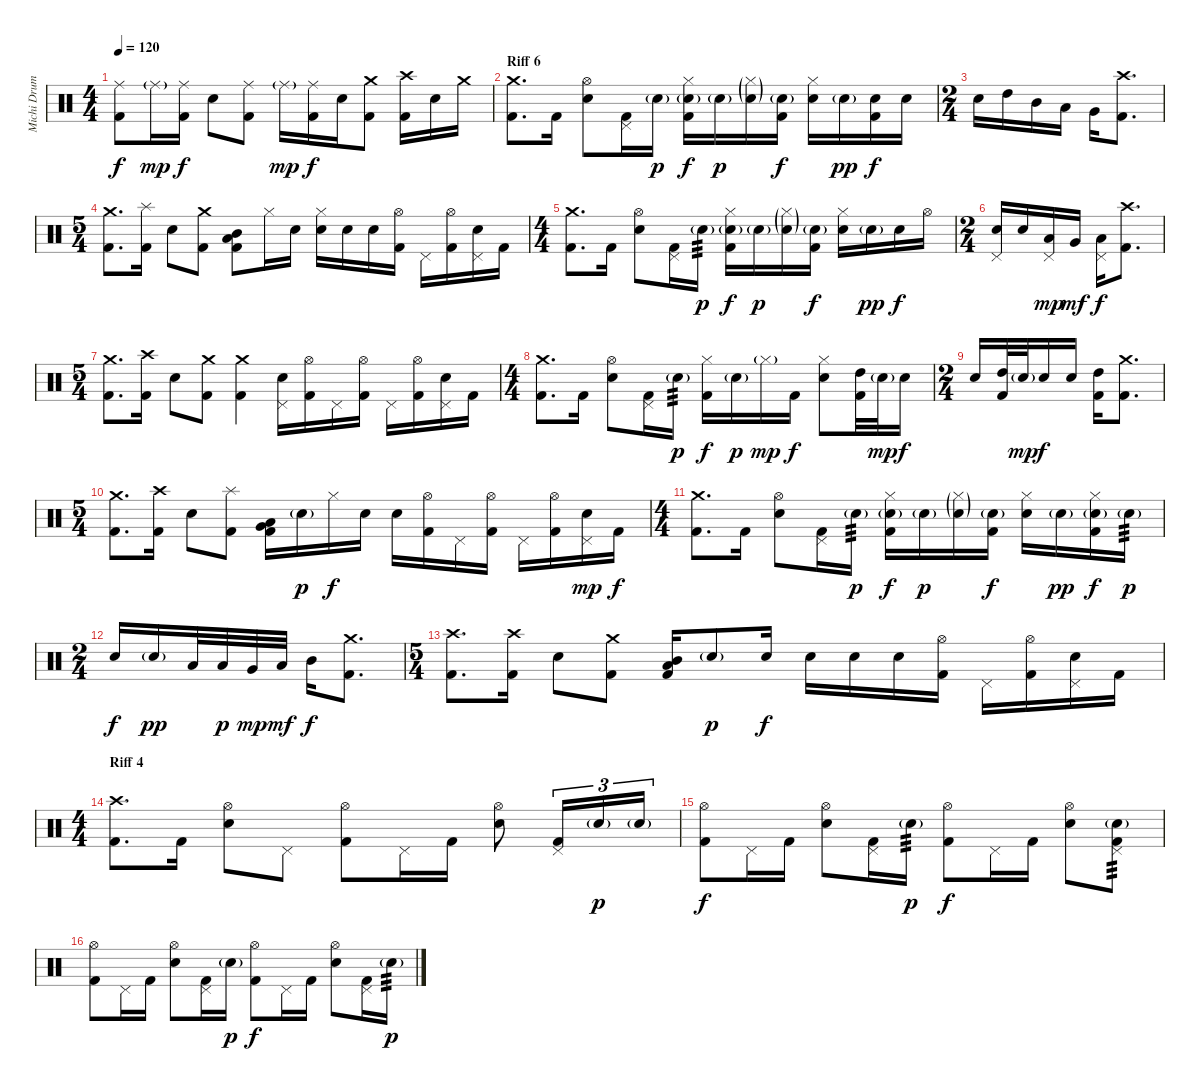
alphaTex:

\track ("Michi Drums" "Michi Drum") {instrument percussion}
\staff {score}
\articulation defaults
\ts (4 4)
\tempo 120
\clef neutral
\ks c
("Ride (middle)" "Kick (hit) 2").8{dy f} "Ride (middle)"{g}.16{dy mp} ("Ride (middle)" "Kick (hit) 2").16{dy f} "Electric Snare (hit)".8 ("Ride (middle)" "Kick (hit) 2").8 "Ride (middle)"{g}.16{dy mp} ("Ride (middle)" "Kick (hit) 2").16{dy f} "Electric Snare (hit)".16 ("Crash medium (hit)" "Kick (hit) 2").8 ("Crash high (hit)" "Kick (hit) 2").16 "Electric Snare (hit)".16 "Crash medium (hit)".16 |
\section ("" "Riff 6")
("Crash medium (hit)" "Kick (hit) 2").8{d} "Kick (hit) 2".16 ("Hi-Hat (open)" "Electric Snare (hit)").8 ("Pedal Hi-Hat (hit)" "Kick (hit) 2").16 "Electric Snare (hit)"{g}.16{dy p} ("Hi-Hat (closed)" "Electric Snare (hit)"{g} "Kick (hit) 2").16{dy f} "Electric Snare (hit)"{g}.16{dy p} ("Hi-Hat (closed)"{g} "Electric Snare (hit)"{g}).16 ("Electric Snare (hit)"{g} "Kick (hit) 2").16{dy f} ("Hi-Hat (closed)" "Electric Snare (hit)").16 "Electric Snare (hit)"{g}.16{dy pp} ("Electric Snare (hit)" "Kick (hit) 2").16{bd 480 dy f} "Electric Snare (hit)".16 |
\ts (2 4)
"Electric Snare (hit)".16 "High Tom (hit)".16 "Mid Tom (hit)".16 "Low Tom (hit)".16 "Very Low Tom (hit)".16 ("Crash high (hit)" "Kick (hit) 2").8{d} |
\ts (5 4)
("Crash medium (hit)" "Kick (hit) 2").8{d} ("Splash (hit)" "Kick (hit) 2").16 "Electric Snare (hit)".8 ("Crash medium (hit)" "Kick (hit) 2").8 ("Mid Tom (hit)" "Low Tom (hit)" "Kick (hit) 2").8 "Hi-Hat (closed)".16 "Electric Snare (hit)".16 ("Hi-Hat (closed)" "Electric Snare (hit)").16 "Electric Snare (hit)".16 "Electric Snare (hit)".16 ("Hi-Hat (open)" "Kick (hit) 2").16 "Pedal Hi-Hat (hit)".16 ("Hi-Hat (open)" "Kick (hit) 2").16 ("Pedal Hi-Hat (hit)" "Electric Snare (hit)").16 "Kick (hit) 2".16 |
\ts (4 4)
("Crash medium (hit)" "Kick (hit) 2").8{d} "Kick (hit) 2".16 ("Hi-Hat (open)" "Electric Snare (hit)").8 ("Pedal Hi-Hat (hit)" "Kick (hit) 2").16 "Electric Snare (hit)"{g}.16{tp 3 dy p} ("Hi-Hat (closed)" "Electric Snare (hit)"{g} "Kick (hit) 2").16{dy f} "Electric Snare (hit)"{g}.16{dy p} ("Hi-Hat (closed)"{g} "Electric Snare (hit)"{g}).16 ("Electric Snare (hit)"{g} "Kick (hit) 2").16{dy f} ("Hi-Hat (closed)" "Electric Snare (hit)").16 "Electric Snare (hit)"{g}.16{dy pp} "Electric Snare (hit)".16{dy f} "Hi-Hat (open)".16 |
\ts (2 4)
("Pedal Hi-Hat (hit)" "Electric Snare (hit)").16 "Electric Snare (hit)".16 ("Pedal Hi-Hat (hit)" "Low Floor Tom (hit)").16{dy mp} "Very Low Tom (hit)".16{dy mf} ("Pedal Hi-Hat (hit)" "Low Tom (hit)").16{dy f} ("Crash high (hit)" "Kick (hit) 2").8{d} |
\ts (5 4)
("Crash medium (hit)" "Kick (hit) 2").8{d} ("Crash high (hit)" "Kick (hit) 2").16 "Electric Snare (hit)".8 ("Crash medium (hit)" "Kick (hit) 2").8 ("Crash medium (hit)" "Kick (hit) 2").4 ("Pedal Hi-Hat (hit)" "Electric Snare (hit)").16 ("Hi-Hat (open)" "Kick (hit) 2").16 "Pedal Hi-Hat (hit)".16 ("Hi-Hat (open)" "Kick (hit) 2").16 "Pedal Hi-Hat (hit)".16 ("Hi-Hat (open)" "Kick (hit) 2").16 ("Pedal Hi-Hat (hit)" "Electric Snare (hit)").16 "Kick (hit) 2".16 |
\ts (4 4)
("Crash medium (hit)" "Kick (hit) 2").8{d} "Kick (hit) 2".16 ("Hi-Hat (open)" "Electric Snare (hit)").8 ("Pedal Hi-Hat (hit)" "Kick (hit) 2").16 "Electric Snare (hit)"{g}.16{tp 3 dy p} ("Hi-Hat (closed)" "Kick (hit) 2").16{dy f} "Electric Snare (hit)"{g}.16{dy p} "Hi-Hat (closed)"{g}.16{dy mp} "Kick (hit) 2".16{dy f} ("Hi-Hat (closed)" "Electric Snare (hit)").8 ("High Tom (hit)" "Kick (hit) 2").32{bd 480} "Electric Snare (hit)"{g}.32{dy mp} "Electric Snare (hit)".16{dy f} |
\ts (2 4)
"Electric Snare (hit)".16 ("High Tom (hit)" "Kick (hit) 2").32{bd 480} "Electric Snare (hit)"{g}.32{dy mp} "Electric Snare (hit)".16{dy f} "Electric Snare (hit)".16 ("High Tom (hit)" "Kick (hit) 2").16 ("Crash medium (hit)" "Kick (hit) 2").8{d} |
\ts (5 4)
("Crash medium (hit)" "Kick (hit) 2").8{d} ("Crash high (hit)" "Kick (hit) 2").16 "Electric Snare (hit)".8 ("Splash (hit)" "Kick (hit) 2").8 ("Low Tom (hit)" "Very Low Tom (hit)" "Kick (hit) 2").16 "Electric Snare (hit)"{g}.16{dy p} "Hi-Hat (closed)".16{dy f} "Electric Snare (hit)".16 "Electric Snare (hit)".16 ("Hi-Hat (open)" "Kick (hit) 2").16 "Pedal Hi-Hat (hit)".16 ("Hi-Hat (open)" "Kick (hit) 2").16 "Pedal Hi-Hat (hit)".16 ("Hi-Hat (open)" "Kick (hit) 2").16 ("Pedal Hi-Hat (hit)" "Electric Snare (hit)").16{dy mp} "Kick (hit) 2".16{dy f} |
\ts (4 4)
("Crash medium (hit)" "Kick (hit) 2").8{d} "Kick (hit) 2".16 ("Hi-Hat (open)" "Electric Snare (hit)").8 ("Pedal Hi-Hat (hit)" "Kick (hit) 2").16 "Electric Snare (hit)"{g}.16{tp 3 dy p} ("Hi-Hat (closed)" "Electric Snare (hit)"{g} "Kick (hit) 2").16{dy f} "Electric Snare (hit)"{g}.16{dy p} ("Hi-Hat (closed)"{g} "Electric Snare (hit)"{g}).16 ("Electric Snare (hit)"{g} "Kick (hit) 2").16{dy f} ("Hi-Hat (closed)" "Electric Snare (hit)").16 "Electric Snare (hit)"{g}.16{dy pp} ("Hi-Hat (closed)" "Electric Snare (hit)"{g} "Kick (hit) 2").16{dy f} "Electric Snare (hit)"{g}.16{tp 3 dy p} |
\ts (2 4)
"Electric Snare (hit)".16{dy f} "Electric Snare (hit)"{g}.16{dy pp} "Low Floor Tom (hit)".32 "Low Floor Tom (hit)".32{dy p} "Very Low Tom (hit)".32{dy mp} "Low Tom (hit)".32{dy mf} "Mid Tom (hit)".16{dy f} ("Crash medium (hit)" "Kick (hit) 2").8{d} |
\ts (5 4)
("Crash high (hit)" "Kick (hit) 2").8{d} ("Crash high (hit)" "Kick (hit) 2").16 "Electric Snare (hit)".8 ("Crash medium (hit)" "Kick (hit) 2").8 ("Mid Tom (hit)" "Low Tom (hit)" "Kick (hit) 2").16 "Electric Snare (hit)"{g}.8{dy p} "Electric Snare (hit)".16{dy f} "Electric Snare (hit)".16 "Electric Snare (hit)".16 "Electric Snare (hit)".16 ("Hi-Hat (open)" "Kick (hit) 2").16 "Pedal Hi-Hat (hit)".16 ("Hi-Hat (open)" "Kick (hit) 2").16 ("Pedal Hi-Hat (hit)" "Electric Snare (hit)").16 "Kick (hit) 2".16 |
\ts (4 4)
\section ("" "Riff 4")
("Crash high (hit)" "Kick (hit) 2").8{d} "Kick (hit) 2".16 ("Hi-Hat (open)" "Electric Snare (hit)").8 "Pedal Hi-Hat (hit)".8 ("Hi-Hat (open)" "Kick (hit) 2").8 "Pedal Hi-Hat (hit)".16 "Kick (hit) 2".16 ("Hi-Hat (open)" "Electric Snare (hit)").8 ("Pedal Hi-Hat (hit)" "Kick (hit) 2").16{tu (3 2)} "Electric Snare (hit)"{g}.16{tu (3 2) dy p} "Electric Snare (hit)"{g}.16{tu (3 2)} |
("Hi-Hat (open)" "Kick (hit) 2").8{dy f} "Pedal Hi-Hat (hit)".16 "Kick (hit) 2".16 ("Hi-Hat (open)" "Electric Snare (hit)").8 ("Pedal Hi-Hat (hit)" "Kick (hit) 2").16 "Electric Snare (hit)"{g}.16{tp 3 dy p} ("Hi-Hat (open)" "Kick (hit) 2").8{dy f} "Pedal Hi-Hat (hit)".16 "Kick (hit) 2".16 ("Hi-Hat (open)" "Electric Snare (hit)").8 ("Pedal Hi-Hat (hit)" "Electric Snare (hit)"{g} "Kick (hit) 2").8{tp 3} |
("Hi-Hat (open)" "Kick (hit) 2").8 "Pedal Hi-Hat (hit)".16 "Kick (hit) 2".16 ("Hi-Hat (open)" "Electric Snare (hit)").8 ("Pedal Hi-Hat (hit)" "Kick (hit) 2").16 "Electric Snare (hit)"{g}.16{dy p} ("Hi-Hat (open)" "Kick (hit) 2").8{dy f} "Pedal Hi-Hat (hit)".16 "Kick (hit) 2".16 ("Hi-Hat (open)" "Electric Snare (hit)").8 ("Pedal Hi-Hat (hit)" "Kick (hit) 2").16 "Electric Snare (hit)"{g}.16{tp 3 dy p}
